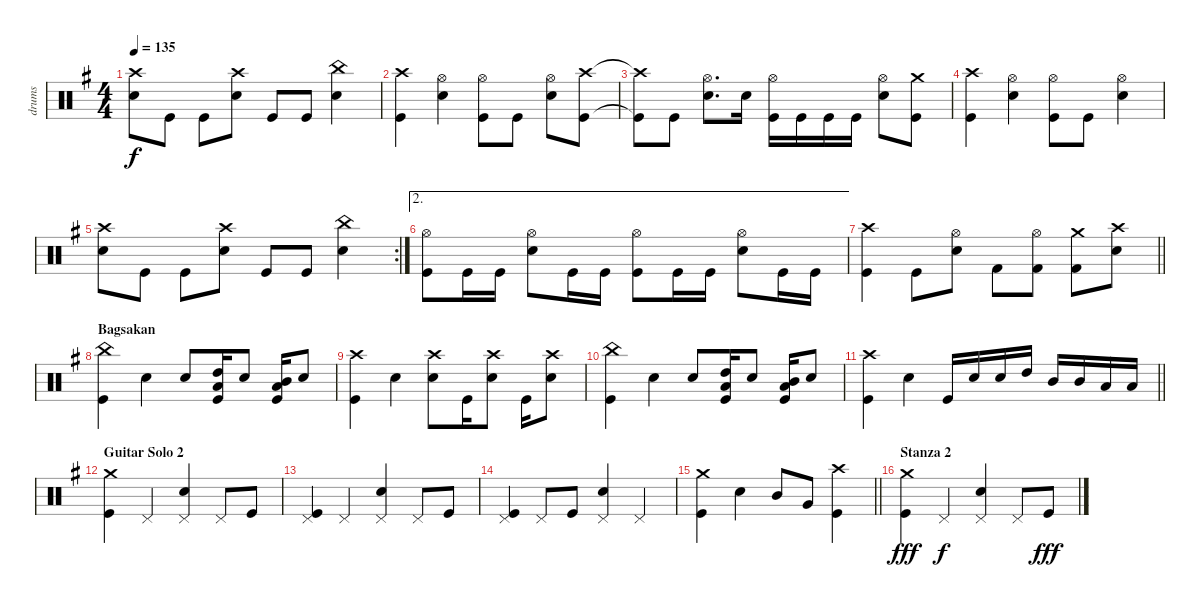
\track ("drums" "drums") {instrument percussion}
\staff {score}
\articulation defaults
\ts (4 4)
\tempo 135
\clef neutral
\ks eminor
("Crash high (hit)" "Snare (hit) 2").8{dy f} "Kick (hit)".8 "Kick (hit)".8 ("Crash high (hit)" "Snare (hit) 2").8 "Kick (hit)".8 "Kick (hit)".8 ("China (hit)" "Snare (hit) 2").4 |
("Crash high (hit)" "Kick (hit)").4 ("Hi-Hat (open)" "Snare (hit) 2").4 ("Hi-Hat (open)" "Kick (hit)").8 "Kick (hit)".8 ("Hi-Hat (open)" "Snare (hit) 2").8 ("Crash high (hit)" "Kick (hit)").8 |
("Crash high (hit)"{t} "Kick (hit)"{t}).8 "Kick (hit)".8 ("Hi-Hat (open)" "Snare (hit) 2").8{d} "Snare (hit) 2".16 ("Hi-Hat (open)" "Kick (hit)").16 "Kick (hit)".16 "Kick (hit)".16 "Kick (hit)".16 ("Hi-Hat (open)" "Snare (hit) 2").8 ("Crash medium (hit)" "Kick (hit)").8 |
("Crash high (hit)" "Kick (hit)").4 ("Hi-Hat (open)" "Snare (hit) 2").4 ("Hi-Hat (open)" "Kick (hit)").8 "Kick (hit)".8 ("Hi-Hat (open)" "Snare (hit) 2").4 |
\rc 2
("Crash high (hit)" "Snare (hit) 2").8 "Kick (hit)".8 "Kick (hit)".8 ("Crash high (hit)" "Snare (hit) 2").8 "Kick (hit)".8 "Kick (hit)".8 ("China (hit)" "Snare (hit) 2").4 |
\ae 2
("Hi-Hat (open)" "Kick (hit)").8 "Kick (hit)".16 "Kick (hit)".16 ("Hi-Hat (open)" "Snare (hit) 2").8 "Kick (hit)".16 "Kick (hit)".16 ("Hi-Hat (open)" "Kick (hit)").8 "Kick (hit)".16 "Kick (hit)".16 ("Hi-Hat (open)" "Snare (hit) 2").8 "Kick (hit)".16 "Kick (hit)".16 |
\barLineRight lightlight
("Crash high (hit)" "Kick (hit)").4 "Kick (hit)".8 ("Hi-Hat (open)" "Snare (hit) 2").8 "Kick (hit) 2".8 ("Hi-Hat (open)" "Kick (hit) 2").8 ("Crash medium (hit)" "Kick (hit) 2").8 ("Crash high (hit)" "Snare (hit) 2").8 |
\section ("" "Bagsakan")
("China (hit)" "Kick (hit)").4 "Snare (hit) 2".4 "Snare (hit) 2".8 ("High Tom (hit)" "Low Floor Tom (hit)" "Kick (hit)").16 "Snare (hit) 2".8 ("Mid Tom (hit)" "Low Floor Tom (hit)" "Kick (hit)").16 "Snare (hit) 2".8 |
("Crash high (hit)" "Kick (hit)").4 "Snare (hit) 2".4 ("Crash high (hit)" "Snare (hit) 2").8 "Kick (hit)".16 ("Crash high (hit)" "Snare (hit) 2").8 "Kick (hit)".16 ("Crash high (hit)" "Snare (hit) 2").8 |
("China (hit)" "Kick (hit)").4 "Snare (hit) 2".4 "Snare (hit) 2".8 ("High Tom (hit)" "Low Floor Tom (hit)" "Kick (hit)").16 "Snare (hit) 2".8 ("Mid Tom (hit)" "Low Floor Tom (hit)" "Kick (hit)").16 "Snare (hit) 2".8 |
\barLineRight lightlight
("Crash high (hit)" "Kick (hit)").4 "Snare (hit) 2".4 "Kick (hit)".16 "Snare (hit) 2".16 "Snare (hit) 2".16 "High Tom (hit)".16 "Mid Tom (hit)".16 "Mid Tom (hit)".16 "Low Floor Tom (hit)".16 "Low Floor Tom (hit)".16 |
\section ("" "Guitar Solo 2")
("Crash medium (hit)" "Kick (hit)").4 "Pedal Hi-Hat (hit)".4 ("Pedal Hi-Hat (hit)" "Snare (hit) 2").4 "Pedal Hi-Hat (hit)".8 "Kick (hit)".8 |
("Pedal Hi-Hat (hit)" "Kick (hit)").4 "Pedal Hi-Hat (hit)".4 ("Pedal Hi-Hat (hit)" "Snare (hit) 2").4 "Pedal Hi-Hat (hit)".8 "Kick (hit)".8 |
("Pedal Hi-Hat (hit)" "Kick (hit)").4 "Pedal Hi-Hat (hit)".8 "Kick (hit)".8 ("Pedal Hi-Hat (hit)" "Snare (hit) 2").4 "Pedal Hi-Hat (hit)".4 |
\barLineRight lightlight
("Crash medium (hit)" "Kick (hit)").4 "Snare (hit) 2".4 "Mid Tom (hit)".8 "Very Low Tom (hit)".8 ("Crash high (hit)" "Kick (hit)").4 |
\section ("" "Stanza 2")
("Crash medium (hit)" "Kick (hit)").4{dy fff} "Pedal Hi-Hat (hit)".4{dy f} ("Pedal Hi-Hat (hit)" "Snare (hit) 2").4 "Pedal Hi-Hat (hit)".8 "Kick (hit)".8{dy fff}
